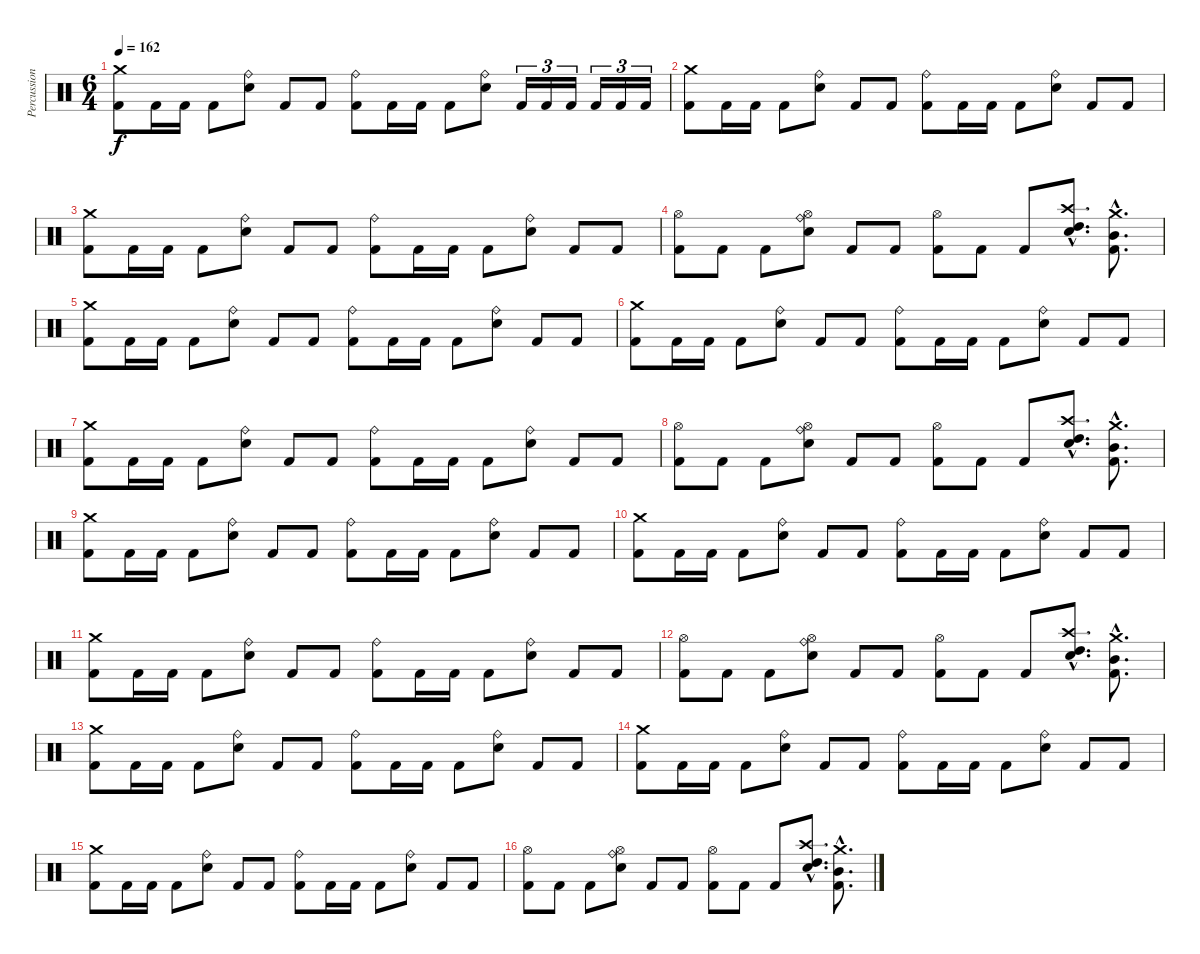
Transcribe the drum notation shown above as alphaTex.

\track ("Percussion" "Percussion") {instrument percussion}
\staff {score}
\articulation defaults
\ts (6 4)
\tempo 162
\clef neutral
\ks c
("Crash medium (hit)" "Kick (hit) 2").8{dy f} "Kick (hit) 2".16 "Kick (hit) 2".16 "Kick (hit) 2".8 ("Ride (bell)" "Electric Snare (hit)").8 "Kick (hit) 2".8 "Kick (hit) 2".8 ("Ride (bell)" "Kick (hit) 2").8 "Kick (hit) 2".16 "Kick (hit) 2".16 "Kick (hit) 2".8 ("Ride (bell)" "Electric Snare (hit)").8 "Kick (hit) 2".16{tu (3 2)} "Kick (hit) 2".16{tu (3 2)} "Kick (hit) 2".16{tu (3 2)} "Kick (hit) 2".16{tu (3 2)} "Kick (hit) 2".16{tu (3 2)} "Kick (hit) 2".16{tu (3 2)} |
("Crash medium (hit)" "Kick (hit) 2").8 "Kick (hit) 2".16 "Kick (hit) 2".16 "Kick (hit) 2".8 ("Ride (bell)" "Electric Snare (hit)").8 "Kick (hit) 2".8 "Kick (hit) 2".8 ("Ride (bell)" "Kick (hit) 2").8 "Kick (hit) 2".16 "Kick (hit) 2".16 "Kick (hit) 2".8 ("Ride (bell)" "Electric Snare (hit)").8 "Kick (hit) 2".8 "Kick (hit) 2".8 |
("Crash medium (hit)" "Kick (hit) 2").8 "Kick (hit) 2".16 "Kick (hit) 2".16 "Kick (hit) 2".8 ("Ride (bell)" "Electric Snare (hit)").8 "Kick (hit) 2".8 "Kick (hit) 2".8 ("Ride (bell)" "Kick (hit) 2").8 "Kick (hit) 2".16 "Kick (hit) 2".16 "Kick (hit) 2".8 ("Ride (bell)" "Electric Snare (hit)").8 "Kick (hit) 2".8 "Kick (hit) 2".8 |
("Hi-Hat (open)" "Kick (hit) 2").8 "Kick (hit) 2".8 "Kick (hit) 2".8 ("Ride (bell)" "Hi-Hat (open)" "Electric Snare (hit)").8 "Kick (hit) 2".8 "Kick (hit) 2".8 ("Hi-Hat (open)" "Kick (hit) 2").8 "Kick (hit) 2".8 "Kick (hit) 2".8 ("Crash high (hit)"{hac} "High Tom (hit)"{hac} "Electric Snare (hit)"{hac}).8{d} ("Crash medium (hit)"{hac} "Mid Tom (hit)"{hac} "Kick (hit) 2"{hac}).8{d} |
("Crash medium (hit)" "Kick (hit) 2").8 "Kick (hit) 2".16 "Kick (hit) 2".16 "Kick (hit) 2".8 ("Ride (bell)" "Electric Snare (hit)").8 "Kick (hit) 2".8 "Kick (hit) 2".8 ("Ride (bell)" "Kick (hit) 2").8 "Kick (hit) 2".16 "Kick (hit) 2".16 "Kick (hit) 2".8 ("Ride (bell)" "Electric Snare (hit)").8 "Kick (hit) 2".8 "Kick (hit) 2".8 |
("Crash medium (hit)" "Kick (hit) 2").8 "Kick (hit) 2".16 "Kick (hit) 2".16 "Kick (hit) 2".8 ("Ride (bell)" "Electric Snare (hit)").8 "Kick (hit) 2".8 "Kick (hit) 2".8 ("Ride (bell)" "Kick (hit) 2").8 "Kick (hit) 2".16 "Kick (hit) 2".16 "Kick (hit) 2".8 ("Ride (bell)" "Electric Snare (hit)").8 "Kick (hit) 2".8 "Kick (hit) 2".8 |
("Crash medium (hit)" "Kick (hit) 2").8 "Kick (hit) 2".16 "Kick (hit) 2".16 "Kick (hit) 2".8 ("Ride (bell)" "Electric Snare (hit)").8 "Kick (hit) 2".8 "Kick (hit) 2".8 ("Ride (bell)" "Kick (hit) 2").8 "Kick (hit) 2".16 "Kick (hit) 2".16 "Kick (hit) 2".8 ("Ride (bell)" "Electric Snare (hit)").8 "Kick (hit) 2".8 "Kick (hit) 2".8 |
("Hi-Hat (open)" "Kick (hit) 2").8 "Kick (hit) 2".8 "Kick (hit) 2".8 ("Ride (bell)" "Hi-Hat (open)" "Electric Snare (hit)").8 "Kick (hit) 2".8 "Kick (hit) 2".8 ("Hi-Hat (open)" "Kick (hit) 2").8 "Kick (hit) 2".8 "Kick (hit) 2".8 ("Crash high (hit)"{hac} "High Tom (hit)"{hac} "Electric Snare (hit)"{hac}).8{d} ("Crash medium (hit)"{hac} "Mid Tom (hit)"{hac} "Kick (hit) 2"{hac}).8{d} |
("Crash medium (hit)" "Kick (hit) 2").8 "Kick (hit) 2".16 "Kick (hit) 2".16 "Kick (hit) 2".8 ("Ride (bell)" "Electric Snare (hit)").8 "Kick (hit) 2".8 "Kick (hit) 2".8 ("Ride (bell)" "Kick (hit) 2").8 "Kick (hit) 2".16 "Kick (hit) 2".16 "Kick (hit) 2".8 ("Ride (bell)" "Electric Snare (hit)").8 "Kick (hit) 2".8 "Kick (hit) 2".8 |
("Crash medium (hit)" "Kick (hit) 2").8 "Kick (hit) 2".16 "Kick (hit) 2".16 "Kick (hit) 2".8 ("Ride (bell)" "Electric Snare (hit)").8 "Kick (hit) 2".8 "Kick (hit) 2".8 ("Ride (bell)" "Kick (hit) 2").8 "Kick (hit) 2".16 "Kick (hit) 2".16 "Kick (hit) 2".8 ("Ride (bell)" "Electric Snare (hit)").8 "Kick (hit) 2".8 "Kick (hit) 2".8 |
("Crash medium (hit)" "Kick (hit) 2").8 "Kick (hit) 2".16 "Kick (hit) 2".16 "Kick (hit) 2".8 ("Ride (bell)" "Electric Snare (hit)").8 "Kick (hit) 2".8 "Kick (hit) 2".8 ("Ride (bell)" "Kick (hit) 2").8 "Kick (hit) 2".16 "Kick (hit) 2".16 "Kick (hit) 2".8 ("Ride (bell)" "Electric Snare (hit)").8 "Kick (hit) 2".8 "Kick (hit) 2".8 |
("Hi-Hat (open)" "Kick (hit) 2").8 "Kick (hit) 2".8 "Kick (hit) 2".8 ("Ride (bell)" "Hi-Hat (open)" "Electric Snare (hit)").8 "Kick (hit) 2".8 "Kick (hit) 2".8 ("Hi-Hat (open)" "Kick (hit) 2").8 "Kick (hit) 2".8 "Kick (hit) 2".8 ("Crash high (hit)"{hac} "High Tom (hit)"{hac} "Electric Snare (hit)"{hac}).8{d} ("Crash medium (hit)"{hac} "Mid Tom (hit)"{hac} "Kick (hit) 2"{hac}).8{d} |
("Crash medium (hit)" "Kick (hit) 2").8 "Kick (hit) 2".16 "Kick (hit) 2".16 "Kick (hit) 2".8 ("Ride (bell)" "Electric Snare (hit)").8 "Kick (hit) 2".8 "Kick (hit) 2".8 ("Ride (bell)" "Kick (hit) 2").8 "Kick (hit) 2".16 "Kick (hit) 2".16 "Kick (hit) 2".8 ("Ride (bell)" "Electric Snare (hit)").8 "Kick (hit) 2".8 "Kick (hit) 2".8 |
("Crash medium (hit)" "Kick (hit) 2").8 "Kick (hit) 2".16 "Kick (hit) 2".16 "Kick (hit) 2".8 ("Ride (bell)" "Electric Snare (hit)").8 "Kick (hit) 2".8 "Kick (hit) 2".8 ("Ride (bell)" "Kick (hit) 2").8 "Kick (hit) 2".16 "Kick (hit) 2".16 "Kick (hit) 2".8 ("Ride (bell)" "Electric Snare (hit)").8 "Kick (hit) 2".8 "Kick (hit) 2".8 |
("Crash medium (hit)" "Kick (hit) 2").8 "Kick (hit) 2".16 "Kick (hit) 2".16 "Kick (hit) 2".8 ("Ride (bell)" "Electric Snare (hit)").8 "Kick (hit) 2".8 "Kick (hit) 2".8 ("Ride (bell)" "Kick (hit) 2").8 "Kick (hit) 2".16 "Kick (hit) 2".16 "Kick (hit) 2".8 ("Ride (bell)" "Electric Snare (hit)").8 "Kick (hit) 2".8 "Kick (hit) 2".8 |
("Hi-Hat (open)" "Kick (hit) 2").8 "Kick (hit) 2".8 "Kick (hit) 2".8 ("Ride (bell)" "Hi-Hat (open)" "Electric Snare (hit)").8 "Kick (hit) 2".8 "Kick (hit) 2".8 ("Hi-Hat (open)" "Kick (hit) 2").8 "Kick (hit) 2".8 "Kick (hit) 2".8 ("Crash high (hit)"{hac} "High Tom (hit)"{hac} "Electric Snare (hit)"{hac}).8{d} ("Crash medium (hit)"{hac} "Mid Tom (hit)"{hac} "Kick (hit) 2"{hac}).8{d}
